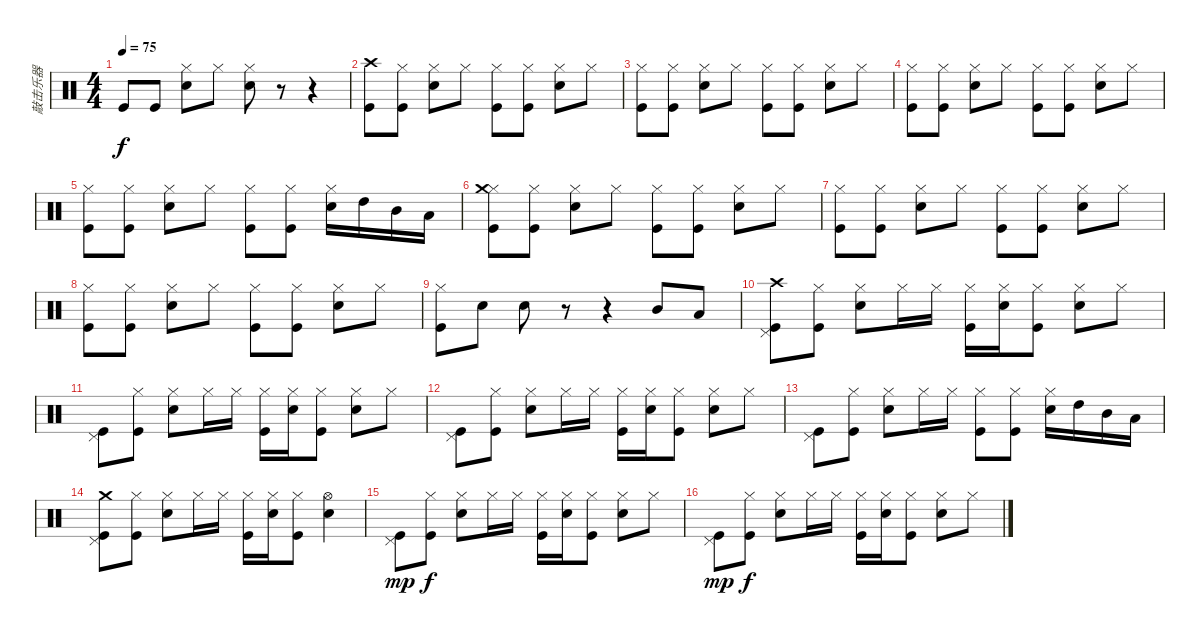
\track ("敲击乐器" "敲击乐器") {instrument percussion}
\staff {score}
\articulation defaults
\ts (4 4)
\tempo 75
\clef neutral
\ks c "Kick (hit)".8{dy f} "Kick (hit)".8
("Hi-Hat (closed)" "Snare (hit) 2").8 "Hi-Hat (closed)".8 ("Hi-Hat (closed)" "Snare (hit) 2").8 r.8 r.4 |
("Crash high (hit)" "Kick (hit)").8 ("Hi-Hat (closed)" "Kick (hit)").8 ("Hi-Hat (closed)" "Snare (hit) 2").8 "Hi-Hat (closed)".8 ("Hi-Hat (closed)" "Kick (hit)").8 ("Hi-Hat (closed)" "Kick (hit)").8 ("Hi-Hat (closed)" "Snare (hit) 2").8 "Hi-Hat (closed)".8 |
("Hi-Hat (closed)" "Kick (hit)").8 ("Hi-Hat (closed)" "Kick (hit)").8 ("Hi-Hat (closed)" "Snare (hit) 2").8 "Hi-Hat (closed)".8 ("Hi-Hat (closed)" "Kick (hit)").8 ("Hi-Hat (closed)" "Kick (hit)").8 ("Hi-Hat (closed)" "Snare (hit) 2").8 "Hi-Hat (closed)".8 |
("Hi-Hat (closed)" "Kick (hit)").8 ("Hi-Hat (closed)" "Kick (hit)").8 ("Hi-Hat (closed)" "Snare (hit) 2").8 "Hi-Hat (closed)".8 ("Hi-Hat (closed)" "Kick (hit)").8 ("Hi-Hat (closed)" "Kick (hit)").8 ("Hi-Hat (closed)" "Snare (hit) 2").8 "Hi-Hat (closed)".8 |
("Hi-Hat (closed)" "Kick (hit)").8 ("Hi-Hat (closed)" "Kick (hit)").8 ("Hi-Hat (closed)" "Snare (hit) 2").8 "Hi-Hat (closed)".8 ("Hi-Hat (closed)" "Kick (hit)").8 ("Hi-Hat (closed)" "Kick (hit)").8 ("Hi-Hat (closed)" "Snare (hit) 2").16 "High Tom (hit)".16 "Mid Tom (hit)".16 "Low Tom (hit)".16 |
("Hi-Hat (closed)" "Crash medium (hit)" "Kick (hit)").8 ("Hi-Hat (closed)" "Kick (hit)").8 ("Hi-Hat (closed)" "Snare (hit) 2").8 "Hi-Hat (closed)".8 ("Hi-Hat (closed)" "Kick (hit)").8 ("Hi-Hat (closed)" "Kick (hit)").8 ("Hi-Hat (closed)" "Snare (hit) 2").8 "Hi-Hat (closed)".8 |
("Hi-Hat (closed)" "Kick (hit)").8 ("Hi-Hat (closed)" "Kick (hit)").8 ("Hi-Hat (closed)" "Snare (hit) 2").8 "Hi-Hat (closed)".8 ("Hi-Hat (closed)" "Kick (hit)").8 ("Hi-Hat (closed)" "Kick (hit)").8 ("Hi-Hat (closed)" "Snare (hit) 2").8 "Hi-Hat (closed)".8 |
("Hi-Hat (closed)" "Kick (hit)").8 ("Hi-Hat (closed)" "Kick (hit)").8 ("Hi-Hat (closed)" "Snare (hit) 2").8 "Hi-Hat (closed)".8 ("Hi-Hat (closed)" "Kick (hit)").8 ("Hi-Hat (closed)" "Kick (hit)").8 ("Hi-Hat (closed)" "Snare (hit) 2").8 "Hi-Hat (closed)".8 |
("Hi-Hat (closed)" "Kick (hit)").8 "Snare (hit) 2".8 "Snare (hit) 2".8 r.8 r.4 "Mid Tom (hit)".8 "Low Tom (hit)".8 |
("Pedal Hi-Hat (hit)" "Crash high (hit)" "Kick (hit)").8 ("Hi-Hat (closed)" "Kick (hit)").8 ("Hi-Hat (closed)" "Snare (hit) 2").8 "Hi-Hat (closed)".16 "Hi-Hat (closed)".16 ("Hi-Hat (closed)" "Kick (hit)").16 ("Hi-Hat (closed)" "Electric Snare (hit)").16 ("Hi-Hat (closed)" "Kick (hit)").8 ("Hi-Hat (closed)" "Snare (hit) 2").8 "Hi-Hat (closed)".8 |
("Pedal Hi-Hat (hit)" "Kick (hit)").8 ("Hi-Hat (closed)" "Kick (hit)").8 ("Hi-Hat (closed)" "Snare (hit) 2").8 "Hi-Hat (closed)".16 "Hi-Hat (closed)".16 ("Hi-Hat (closed)" "Kick (hit)").16 ("Hi-Hat (closed)" "Electric Snare (hit)").16 ("Hi-Hat (closed)" "Kick (hit)").8 ("Hi-Hat (closed)" "Snare (hit) 2").8 "Hi-Hat (closed)".8 |
("Pedal Hi-Hat (hit)" "Kick (hit)").8 ("Hi-Hat (closed)" "Kick (hit)").8 ("Hi-Hat (closed)" "Snare (hit) 2").8 "Hi-Hat (closed)".16 "Hi-Hat (closed)".16 ("Hi-Hat (closed)" "Kick (hit)").16 ("Hi-Hat (closed)" "Electric Snare (hit)").16 ("Hi-Hat (closed)" "Kick (hit)").8 ("Hi-Hat (closed)" "Snare (hit) 2").8 "Hi-Hat (closed)".8 |
("Pedal Hi-Hat (hit)" "Kick (hit)").8 ("Hi-Hat (closed)" "Kick (hit)").8 ("Hi-Hat (closed)" "Snare (hit) 2").8 "Hi-Hat (closed)".16 "Hi-Hat (closed)".16 ("Hi-Hat (closed)" "Kick (hit)").8 ("Hi-Hat (closed)" "Kick (hit)").8 ("Hi-Hat (closed)" "Snare (hit) 2").16 "High Tom (hit)".16 "Mid Tom (hit)".16 "Low Tom (hit)".16 |
("Pedal Hi-Hat (hit)" "Crash medium (hit)" "Kick (hit)").8 ("Hi-Hat (closed)" "Kick (hit)").8 ("Hi-Hat (closed)" "Snare (hit) 2").8 "Hi-Hat (closed)".16 "Hi-Hat (closed)".16 ("Hi-Hat (closed)" "Kick (hit)").16 ("Hi-Hat (closed)" "Electric Snare (hit)").16 ("Hi-Hat (closed)" "Kick (hit)").8 ("Hi-Hat (open)" "Snare (hit) 2").4 |
("Pedal Hi-Hat (hit)" "Kick (hit)").8{dy mp} ("Hi-Hat (closed)" "Kick (hit)").8{dy f} ("Hi-Hat (closed)" "Snare (hit) 2").8 "Hi-Hat (closed)".16 "Hi-Hat (closed)".16 ("Hi-Hat (closed)" "Kick (hit)").16 ("Hi-Hat (closed)" "Electric Snare (hit)").16 ("Hi-Hat (closed)" "Kick (hit)").8 ("Hi-Hat (closed)" "Snare (hit) 2").8 "Hi-Hat (closed)".8 |
("Pedal Hi-Hat (hit)" "Kick (hit)").8{dy mp} ("Hi-Hat (closed)" "Kick (hit)").8{dy f} ("Hi-Hat (closed)" "Snare (hit) 2").8 "Hi-Hat (closed)".16 "Hi-Hat (closed)".16 ("Hi-Hat (closed)" "Kick (hit)").16 ("Hi-Hat (closed)" "Electric Snare (hit)").16 ("Hi-Hat (closed)" "Kick (hit)").8 ("Hi-Hat (closed)" "Snare (hit) 2").8 "Hi-Hat (closed)".8
